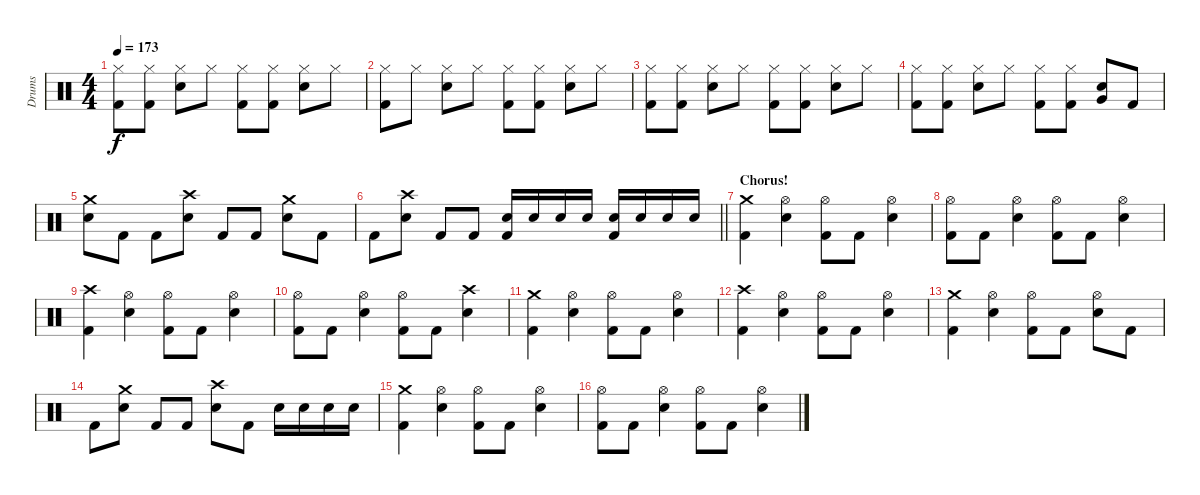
\track ("Drums" "Drums") {instrument percussion}
\staff {score}
\articulation defaults
\ts (4 4)
\tempo 173
\clef neutral
\ks c
("Hi-Hat (closed)" "Kick (hit) 2").8{dy f} ("Hi-Hat (closed)" "Kick (hit) 2").8 ("Hi-Hat (closed)" "Electric Snare (hit)").8 "Hi-Hat (closed)".8 ("Hi-Hat (closed)" "Kick (hit) 2").8 ("Hi-Hat (closed)" "Kick (hit) 2").8 ("Hi-Hat (closed)" "Electric Snare (hit)").8 "Hi-Hat (closed)".8 |
("Hi-Hat (closed)" "Kick (hit) 2").8 "Hi-Hat (closed)".8 ("Hi-Hat (closed)" "Electric Snare (hit)").8 "Hi-Hat (closed)".8 ("Hi-Hat (closed)" "Kick (hit) 2").8 ("Hi-Hat (closed)" "Kick (hit) 2").8 ("Hi-Hat (closed)" "Electric Snare (hit)").8 "Hi-Hat (closed)".8 |
("Hi-Hat (closed)" "Kick (hit) 2").8 ("Hi-Hat (closed)" "Kick (hit) 2").8 ("Hi-Hat (closed)" "Electric Snare (hit)").8 "Hi-Hat (closed)".8 ("Hi-Hat (closed)" "Kick (hit) 2").8 ("Hi-Hat (closed)" "Kick (hit) 2").8 ("Hi-Hat (closed)" "Electric Snare (hit)").8 "Hi-Hat (closed)".8 |
("Hi-Hat (closed)" "Kick (hit) 2").8 ("Hi-Hat (closed)" "Kick (hit) 2").8 ("Hi-Hat (closed)" "Electric Snare (hit)").8 "Hi-Hat (closed)".8 ("Hi-Hat (closed)" "Kick (hit) 2").8 ("Hi-Hat (closed)" "Kick (hit) 2").8 ("Very Low Tom (hit)" "Electric Snare (hit)").8 "Kick (hit) 2".8 |
("Crash medium (hit)" "Electric Snare (hit)").8 "Kick (hit) 2".8 "Kick (hit) 2".8 ("Crash high (hit)" "Electric Snare (hit)").8 "Kick (hit) 2".8 "Kick (hit) 2".8 ("Crash medium (hit)" "Electric Snare (hit)").8 "Kick (hit) 2".8 |
\barLineRight lightlight "Kick (hit) 2".8
("Crash high (hit)" "Electric Snare (hit)").8 "Kick (hit) 2".8 "Kick (hit) 2".8 ("Electric Snare (hit)" "Kick (hit) 2").16 "Electric Snare (hit)".16 "Electric Snare (hit)".16 "Electric Snare (hit)".16 ("Electric Snare (hit)" "Kick (hit) 2").16 "Electric Snare (hit)".16 "Electric Snare (hit)".16 "Electric Snare (hit)".16 |
\section ("" "Chorus!")
("Crash medium (hit)" "Kick (hit) 2").4 ("Hi-Hat (open)" "Electric Snare (hit)").4 ("Hi-Hat (open)" "Kick (hit) 2").8 "Kick (hit) 2".8 ("Hi-Hat (open)" "Electric Snare (hit)").4 |
("Hi-Hat (open)" "Kick (hit) 2").8 "Kick (hit) 2".8 ("Hi-Hat (open)" "Electric Snare (hit)").4 ("Hi-Hat (open)" "Kick (hit) 2").8 "Kick (hit) 2".8 ("Hi-Hat (open)" "Electric Snare (hit)").4 |
("Crash high (hit)" "Kick (hit) 2").4 ("Hi-Hat (open)" "Electric Snare (hit)").4 ("Hi-Hat (open)" "Kick (hit) 2").8 "Kick (hit) 2".8 ("Hi-Hat (open)" "Electric Snare (hit)").4 |
("Hi-Hat (open)" "Kick (hit) 2").8 "Kick (hit) 2".8 ("Hi-Hat (open)" "Electric Snare (hit)").4 ("Hi-Hat (open)" "Kick (hit) 2").8 "Kick (hit) 2".8 ("Crash high (hit)" "Electric Snare (hit)").4 |
("Crash medium (hit)" "Kick (hit) 2").4 ("Hi-Hat (open)" "Electric Snare (hit)").4 ("Hi-Hat (open)" "Kick (hit) 2").8 "Kick (hit) 2".8 ("Hi-Hat (open)" "Electric Snare (hit)").4 |
("Crash high (hit)" "Kick (hit) 2").4 ("Hi-Hat (open)" "Electric Snare (hit)").4 ("Hi-Hat (open)" "Kick (hit) 2").8 "Kick (hit) 2".8 ("Hi-Hat (open)" "Electric Snare (hit)").4 |
("Crash medium (hit)" "Kick (hit) 2").4 ("Hi-Hat (open)" "Electric Snare (hit)").4 ("Hi-Hat (open)" "Kick (hit) 2").8 "Kick (hit) 2".8 ("Hi-Hat (open)" "Electric Snare (hit)").8 "Kick (hit) 2".8 |
"Kick (hit) 2".8 ("Crash medium (hit)" "Electric Snare (hit)").8 "Kick (hit) 2".8 "Kick (hit) 2".8 ("Crash high (hit)" "Electric Snare (hit)").8 "Kick (hit) 2".8 "Electric Snare (hit)".16 "Electric Snare (hit)".16 "Electric Snare (hit)".16 "Electric Snare (hit)".16 |
("Crash medium (hit)" "Kick (hit) 2").4 ("Hi-Hat (open)" "Electric Snare (hit)").4 ("Hi-Hat (open)" "Kick (hit) 2").8 "Kick (hit) 2".8 ("Hi-Hat (open)" "Electric Snare (hit)").4 |
("Hi-Hat (open)" "Kick (hit) 2").8 "Kick (hit) 2".8 ("Hi-Hat (open)" "Electric Snare (hit)").4 ("Hi-Hat (open)" "Kick (hit) 2").8 "Kick (hit) 2".8 ("Hi-Hat (open)" "Electric Snare (hit)").4
